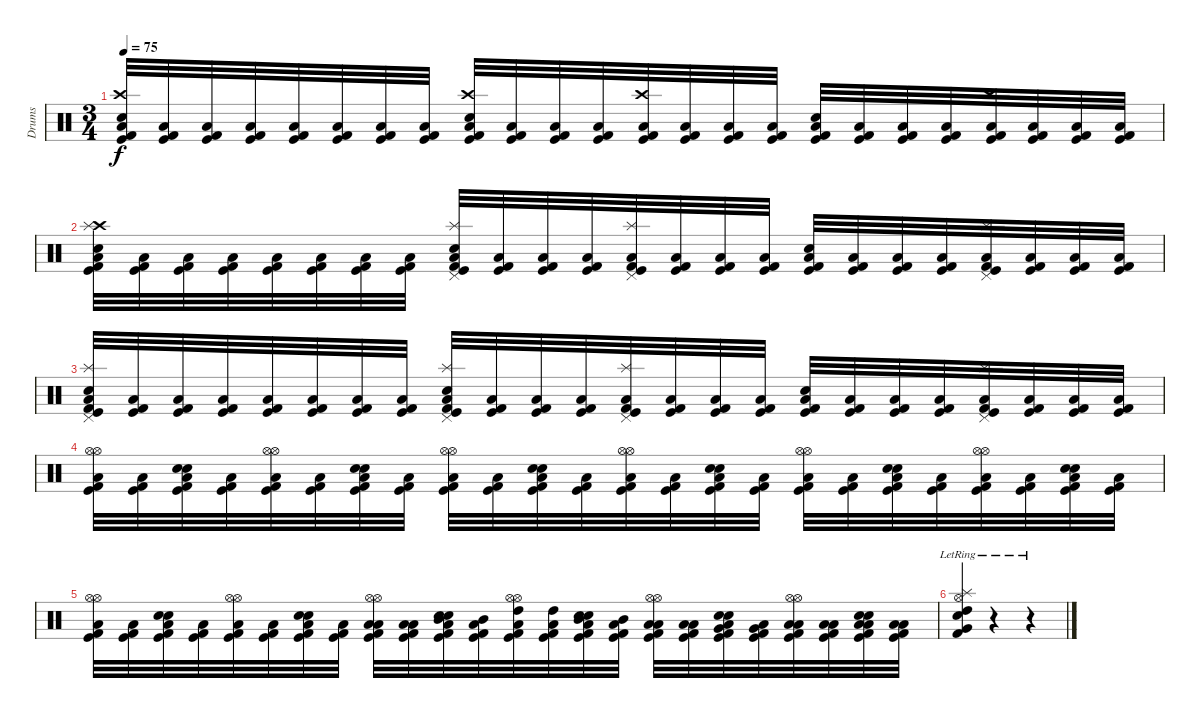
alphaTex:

\track ("Drums" "Drums") {instrument percussion}
\staff {score}
\articulation defaults
\ts (3 4)
\tempo 75
\clef neutral
\ks c
("Kick (hit) 2" "Low Tom (hit)" "Electric Snare (hit)" "Crash high (hit)" "Kick (hit)").32{dy f} ("Kick (hit) 2" "Low Tom (hit)" "Kick (hit)").32 ("Kick (hit) 2" "Low Tom (hit)" "Kick (hit)").32 ("Kick (hit) 2" "Low Tom (hit)" "Kick (hit)").32 ("Kick (hit) 2" "Low Tom (hit)" "Kick (hit)").32 ("Kick (hit) 2" "Low Tom (hit)" "Kick (hit)").32 ("Kick (hit) 2" "Low Tom (hit)" "Kick (hit)").32 ("Kick (hit) 2" "Low Tom (hit)" "Kick (hit)").32 ("Kick (hit) 2" "Low Tom (hit)" "Electric Snare (hit)" "Crash high (hit)" "Kick (hit)").32 ("Kick (hit) 2" "Low Tom (hit)" "Kick (hit)").32 ("Kick (hit) 2" "Low Tom (hit)" "Kick (hit)").32 ("Kick (hit) 2" "Low Tom (hit)" "Kick (hit)").32 ("Kick (hit) 2" "Low Tom (hit)" "Crash high (hit)" "Kick (hit)").32 ("Kick (hit) 2" "Low Tom (hit)" "Kick (hit)").32 ("Kick (hit) 2" "Low Tom (hit)" "Kick (hit)").32 ("Kick (hit) 2" "Low Tom (hit)" "Kick (hit)").32 ("Kick (hit) 2" "Low Tom (hit)" "Electric Snare (hit)" "Kick (hit)").32 ("Kick (hit) 2" "Low Tom (hit)" "Kick (hit)").32 ("Kick (hit) 2" "Low Tom (hit)" "Kick (hit)").32 ("Kick (hit) 2" "Low Tom (hit)" "Kick (hit)").32 ("Kick (hit) 2" "Low Tom (hit)" "Crash high (hit)" "Kick (hit)").32 ("Kick (hit) 2" "Low Tom (hit)" "Kick (hit)").32 ("Kick (hit) 2" "Low Tom (hit)" "Kick (hit)").32 ("Kick (hit) 2" "Low Tom (hit)" "Kick (hit)").32 |
("Kick (hit) 2" "Low Tom (hit)" "Snare (hit) 2" "Crash high (hit)" "Splash (hit)" "Kick (hit)").32 ("Kick (hit) 2" "Low Tom (hit)" "Kick (hit)").32 ("Kick (hit) 2" "Low Tom (hit)" "Kick (hit)").32 ("Kick (hit) 2" "Low Tom (hit)" "Kick (hit)").32 ("Kick (hit) 2" "Low Tom (hit)" "Kick (hit)").32 ("Kick (hit) 2" "Low Tom (hit)" "Kick (hit)").32 ("Kick (hit) 2" "Low Tom (hit)" "Kick (hit)").32 ("Kick (hit) 2" "Low Tom (hit)" "Kick (hit)").32 ("Kick (hit) 2" "Low Tom (hit)" "Snare (hit) 2" "Splash (hit)" "Pedal Hi-Hat (hit)" "Kick (hit)").32 ("Kick (hit) 2" "Low Tom (hit)" "Kick (hit)").32 ("Kick (hit) 2" "Low Tom (hit)" "Kick (hit)").32 ("Kick (hit) 2" "Low Tom (hit)" "Kick (hit)").32 ("Kick (hit) 2" "Low Tom (hit)" "Splash (hit)" "Pedal Hi-Hat (hit)" "Kick (hit)").32 ("Kick (hit) 2" "Low Tom (hit)" "Kick (hit)").32 ("Kick (hit) 2" "Low Tom (hit)" "Kick (hit)").32 ("Kick (hit) 2" "Low Tom (hit)" "Kick (hit)").32 ("Kick (hit) 2" "Low Tom (hit)" "Snare (hit) 2" "Kick (hit)").32 ("Kick (hit) 2" "Low Tom (hit)" "Kick (hit)").32 ("Kick (hit) 2" "Low Tom (hit)" "Kick (hit)").32 ("Kick (hit) 2" "Low Tom (hit)" "Kick (hit)").32 ("Kick (hit) 2" "Low Tom (hit)" "Splash (hit)" "Pedal Hi-Hat (hit)" "Kick (hit)").32 ("Kick (hit) 2" "Low Tom (hit)" "Kick (hit)").32 ("Kick (hit) 2" "Low Tom (hit)" "Kick (hit)").32 ("Kick (hit) 2" "Low Tom (hit)" "Kick (hit)").32 |
("Kick (hit) 2" "Low Tom (hit)" "Snare (hit) 2" "Splash (hit)" "Pedal Hi-Hat (hit)" "Kick (hit)").32 ("Kick (hit) 2" "Low Tom (hit)" "Kick (hit)").32 ("Kick (hit) 2" "Low Tom (hit)" "Kick (hit)").32 ("Kick (hit) 2" "Low Tom (hit)" "Kick (hit)").32 ("Kick (hit) 2" "Low Tom (hit)" "Kick (hit)").32 ("Kick (hit) 2" "Low Tom (hit)" "Kick (hit)").32 ("Kick (hit) 2" "Low Tom (hit)" "Kick (hit)").32 ("Kick (hit) 2" "Low Tom (hit)" "Kick (hit)").32 ("Kick (hit) 2" "Low Tom (hit)" "Snare (hit) 2" "Splash (hit)" "Pedal Hi-Hat (hit)" "Kick (hit)").32 ("Kick (hit) 2" "Low Tom (hit)" "Kick (hit)").32 ("Kick (hit) 2" "Low Tom (hit)" "Kick (hit)").32 ("Kick (hit) 2" "Low Tom (hit)" "Kick (hit)").32 ("Kick (hit) 2" "Low Tom (hit)" "Splash (hit)" "Pedal Hi-Hat (hit)" "Kick (hit)").32 ("Kick (hit) 2" "Low Tom (hit)" "Kick (hit)").32 ("Kick (hit) 2" "Low Tom (hit)" "Kick (hit)").32 ("Kick (hit) 2" "Low Tom (hit)" "Kick (hit)").32 ("Kick (hit) 2" "Low Tom (hit)" "Snare (hit) 2" "Kick (hit)").32 ("Kick (hit) 2" "Low Tom (hit)" "Kick (hit)").32 ("Kick (hit) 2" "Low Tom (hit)" "Kick (hit)").32 ("Kick (hit) 2" "Low Tom (hit)" "Kick (hit)").32 ("Kick (hit) 2" "Low Tom (hit)" "Splash (hit)" "Pedal Hi-Hat (hit)" "Kick (hit)").32 ("Kick (hit) 2" "Low Tom (hit)" "Kick (hit)").32 ("Kick (hit) 2" "Low Tom (hit)" "Kick (hit)").32 ("Kick (hit) 2" "Low Tom (hit)" "Kick (hit)").32 |
("Hi-Hat (open)" "Hi-Hat (open)" "Low Tom (hit)" "Kick (hit)" "Kick (hit) 2").32 ("Low Tom (hit)" "Kick (hit)" "Kick (hit) 2").32 ("Snare (hit) 2" "Snare (hit) 2" "Low Tom (hit)" "Kick (hit)" "Kick (hit) 2").32 ("Low Tom (hit)" "Kick (hit)" "Kick (hit) 2").32 ("Hi-Hat (open)" "Hi-Hat (open)" "Low Tom (hit)" "Kick (hit)" "Kick (hit) 2").32 ("Low Tom (hit)" "Kick (hit)" "Kick (hit) 2").32 ("Snare (hit) 2" "Snare (hit) 2" "Low Tom (hit)" "Kick (hit)" "Kick (hit) 2").32 ("Low Tom (hit)" "Kick (hit)" "Kick (hit) 2").32 ("Hi-Hat (open)" "Hi-Hat (open)" "Low Tom (hit)" "Kick (hit)" "Kick (hit) 2").32 ("Low Tom (hit)" "Kick (hit)" "Kick (hit) 2").32 ("Snare (hit) 2" "Snare (hit) 2" "Low Tom (hit)" "Kick (hit)" "Kick (hit) 2").32 ("Low Tom (hit)" "Kick (hit)" "Kick (hit) 2").32 ("Hi-Hat (open)" "Hi-Hat (open)" "Low Tom (hit)" "Kick (hit)" "Kick (hit) 2").32 ("Low Tom (hit)" "Kick (hit)" "Kick (hit) 2").32 ("Snare (hit) 2" "Snare (hit) 2" "Low Tom (hit)" "Kick (hit)" "Kick (hit) 2").32 ("Low Tom (hit)" "Kick (hit)" "Kick (hit) 2").32 ("Hi-Hat (open)" "Hi-Hat (open)" "Low Tom (hit)" "Kick (hit)" "Kick (hit) 2").32 ("Low Tom (hit)" "Kick (hit)" "Kick (hit) 2").32 ("Snare (hit) 2" "Snare (hit) 2" "Low Tom (hit)" "Kick (hit)" "Kick (hit) 2").32 ("Low Tom (hit)" "Kick (hit)" "Kick (hit) 2").32 ("Hi-Hat (open)" "Hi-Hat (open)" "Low Tom (hit)" "Kick (hit)" "Kick (hit) 2").32 ("Low Tom (hit)" "Kick (hit)" "Kick (hit) 2").32 ("Snare (hit) 2" "Snare (hit) 2" "Low Tom (hit)" "Kick (hit)" "Kick (hit) 2").32 ("Low Tom (hit)" "Kick (hit)" "Kick (hit) 2").32 |
("Hi-Hat (open)" "Hi-Hat (open)" "Low Tom (hit)" "Kick (hit)" "Kick (hit) 2").32 ("Low Tom (hit)" "Kick (hit)" "Kick (hit) 2").32 ("Snare (hit) 2" "Snare (hit) 2" "Low Tom (hit)" "Kick (hit)" "Kick (hit) 2").32 ("Low Tom (hit)" "Kick (hit)" "Kick (hit) 2").32 ("Hi-Hat (open)" "Hi-Hat (open)" "Low Tom (hit)" "Kick (hit)" "Kick (hit) 2").32 ("Low Tom (hit)" "Kick (hit)" "Kick (hit) 2").32 ("Snare (hit) 2" "Snare (hit) 2" "Low Tom (hit)" "Kick (hit)" "Kick (hit) 2").32 ("Low Tom (hit)" "Kick (hit)" "Kick (hit) 2").32 ("Hi-Hat (open)" "Low Tom (hit)" "Hi-Hat (open)" "Low Tom (hit)" "Kick (hit)" "Kick (hit) 2").32 ("Low Tom (hit)" "Low Tom (hit)" "Kick (hit)" "Kick (hit) 2").32 ("Snare (hit) 2" "Mid Tom (hit)" "Snare (hit) 2" "Low Tom (hit)" "Kick (hit)" "Kick (hit) 2").32 ("Mid Tom (hit)" "Low Tom (hit)" "Kick (hit)" "Kick (hit) 2").32 ("Hi-Hat (open)" "High Tom (hit)" "Hi-Hat (open)" "Low Tom (hit)" "Kick (hit)" "Kick (hit) 2").32 ("High Tom (hit)" "Low Tom (hit)" "Kick (hit)" "Kick (hit) 2").32 ("Snare (hit) 2" "Mid Tom (hit)" "Snare (hit) 2" "Low Tom (hit)" "Kick (hit)" "Kick (hit) 2").32 ("Mid Tom (hit)" "Low Tom (hit)" "Kick (hit)" "Kick (hit) 2").32 ("Hi-Hat (open)" "Low Tom (hit)" "Hi-Hat (open)" "Low Tom (hit)" "Kick (hit)" "Kick (hit) 2").32 ("Low Tom (hit)" "Low Tom (hit)" "Kick (hit)" "Kick (hit) 2").32 ("Snare (hit) 2" "Very Low Tom (hit)" "Snare (hit) 2" "Low Tom (hit)" "Kick (hit)" "Kick (hit) 2").32 ("Very Low Tom (hit)" "Low Tom (hit)" "Kick (hit)" "Kick (hit) 2").32 ("Hi-Hat (open)" "Low Floor Tom (hit)" "Hi-Hat (open)" "Low Tom (hit)" "Kick (hit)" "Kick (hit) 2").32 ("Low Floor Tom (hit)" "Low Tom (hit)" "Kick (hit)" "Kick (hit) 2").32 ("Snare (hit) 2" "Low Floor Tom (hit)" "Snare (hit) 2" "Low Tom (hit)" "Kick (hit)" "Kick (hit) 2").32 ("Low Floor Tom (hit)" "Low Tom (hit)" "Kick (hit)" "Kick (hit) 2").32 |
("Electric Snare (hit)" "Kick (hit) 2" "Splash (hit)" "Hi-Hat (open)" "Very Low Tom (hit)" "High Tom (hit)"{lr}).4 r.4 r.4
